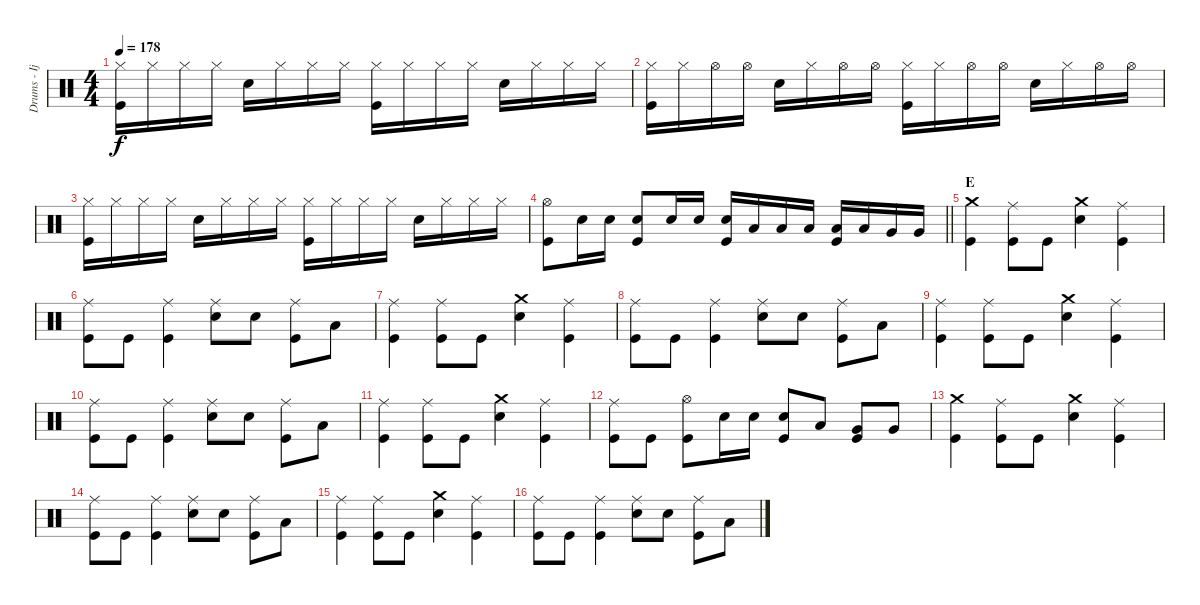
\track ("Drums - Ijichi" "Drums - Ij") {instrument percussion}
\staff {score}
\articulation defaults
\ts (4 4)
\tempo 178
\clef neutral
\ks c
("Hi-Hat (closed)" "Kick (hit)").16{dy f} "Hi-Hat (closed)".16 "Hi-Hat (closed)".16 "Hi-Hat (closed)".16 "Electric Snare (hit)".16 "Hi-Hat (closed)".16 "Hi-Hat (closed)".16 "Hi-Hat (closed)".16 ("Hi-Hat (closed)" "Kick (hit)").16 "Hi-Hat (closed)".16 "Hi-Hat (closed)".16 "Hi-Hat (closed)".16 "Electric Snare (hit)".16 "Hi-Hat (closed)".16 "Hi-Hat (closed)".16 "Hi-Hat (closed)".16 |
("Hi-Hat (closed)" "Kick (hit)").16 "Hi-Hat (closed)".16 "Hi-Hat (open)".16 "Hi-Hat (open)".16 "Electric Snare (hit)".16 "Hi-Hat (closed)".16 "Hi-Hat (open)".16 "Hi-Hat (open)".16 ("Hi-Hat (closed)" "Kick (hit)").16 "Hi-Hat (closed)".16 "Hi-Hat (open)".16 "Hi-Hat (open)".16 "Electric Snare (hit)".16 "Hi-Hat (closed)".16 "Hi-Hat (open)".16 "Hi-Hat (open)".16 |
("Hi-Hat (closed)" "Kick (hit)").16 "Hi-Hat (closed)".16 "Hi-Hat (closed)".16 "Hi-Hat (closed)".16 "Electric Snare (hit)".16 "Hi-Hat (closed)".16 "Hi-Hat (closed)".16 "Hi-Hat (closed)".16 ("Hi-Hat (closed)" "Kick (hit)").16 "Hi-Hat (closed)".16 "Hi-Hat (closed)".16 "Hi-Hat (closed)".16 "Electric Snare (hit)".16 "Hi-Hat (closed)".16 "Hi-Hat (closed)".16 "Hi-Hat (closed)".16 |
\barLineRight lightlight
("Hi-Hat (open)" "Kick (hit)").8 "Electric Snare (hit)".16 "Electric Snare (hit)".16 ("Electric Snare (hit)" "Kick (hit)").8 "Electric Snare (hit)".16 "Electric Snare (hit)".16 ("Electric Snare (hit)" "Kick (hit)").16 "Low Tom (hit)".16 "Low Tom (hit)".16 "Low Tom (hit)".16 ("Low Tom (hit)" "Kick (hit)").16 "Low Tom (hit)".16 "Very Low Tom (hit)".16 "Very Low Tom (hit)".16 |
\section ("" "E")
("Crash medium (hit)" "Kick (hit)").4 ("Ride (middle)" "Kick (hit)").8 "Kick (hit)".8 ("Crash medium (hit)" "Electric Snare (hit)").4 ("Ride (middle)" "Kick (hit)").4 |
("Ride (middle)" "Kick (hit)").8 "Kick (hit)".8 ("Ride (middle)" "Kick (hit)").4 ("Ride (middle)" "Electric Snare (hit)").8 "Electric Snare (hit)".8 ("Ride (middle)" "Kick (hit)").8 "Low Tom (hit)".8 |
("Ride (middle)" "Kick (hit)").4 ("Ride (middle)" "Kick (hit)").8 "Kick (hit)".8 ("Crash medium (hit)" "Electric Snare (hit)").4 ("Ride (middle)" "Kick (hit)").4 |
("Ride (middle)" "Kick (hit)").8 "Kick (hit)".8 ("Ride (middle)" "Kick (hit)").4 ("Ride (middle)" "Electric Snare (hit)").8 "Electric Snare (hit)".8 ("Ride (middle)" "Kick (hit)").8 "Low Tom (hit)".8 |
("Ride (middle)" "Kick (hit)").4 ("Ride (middle)" "Kick (hit)").8 "Kick (hit)".8 ("Crash medium (hit)" "Electric Snare (hit)").4 ("Ride (middle)" "Kick (hit)").4 |
("Ride (middle)" "Kick (hit)").8 "Kick (hit)".8 ("Ride (middle)" "Kick (hit)").4 ("Ride (middle)" "Electric Snare (hit)").8 "Electric Snare (hit)".8 ("Ride (middle)" "Kick (hit)").8 "Low Tom (hit)".8 |
("Ride (middle)" "Kick (hit)").4 ("Ride (middle)" "Kick (hit)").8 "Kick (hit)".8 ("Crash medium (hit)" "Electric Snare (hit)").4 ("Ride (middle)" "Kick (hit)").4 |
("Ride (middle)" "Kick (hit)").8 "Kick (hit)".8 ("Hi-Hat (open)" "Kick (hit)").8 "Electric Snare (hit)".16 "Electric Snare (hit)".16 ("Electric Snare (hit)" "Kick (hit)").8 "Low Tom (hit)".8 ("Very Low Tom (hit)" "Kick (hit)").8 "Very Low Tom (hit)".8 |
("Crash medium (hit)" "Kick (hit)").4 ("Ride (middle)" "Kick (hit)").8 "Kick (hit)".8 ("Crash medium (hit)" "Electric Snare (hit)").4 ("Ride (middle)" "Kick (hit)").4 |
("Ride (middle)" "Kick (hit)").8 "Kick (hit)".8 ("Ride (middle)" "Kick (hit)").4 ("Ride (middle)" "Electric Snare (hit)").8 "Electric Snare (hit)".8 ("Ride (middle)" "Kick (hit)").8 "Low Tom (hit)".8 |
("Ride (middle)" "Kick (hit)").4 ("Ride (middle)" "Kick (hit)").8 "Kick (hit)".8 ("Crash medium (hit)" "Electric Snare (hit)").4 ("Ride (middle)" "Kick (hit)").4 |
("Ride (middle)" "Kick (hit)").8 "Kick (hit)".8 ("Ride (middle)" "Kick (hit)").4 ("Ride (middle)" "Electric Snare (hit)").8 "Electric Snare (hit)".8 ("Ride (middle)" "Kick (hit)").8 "Low Tom (hit)".8
